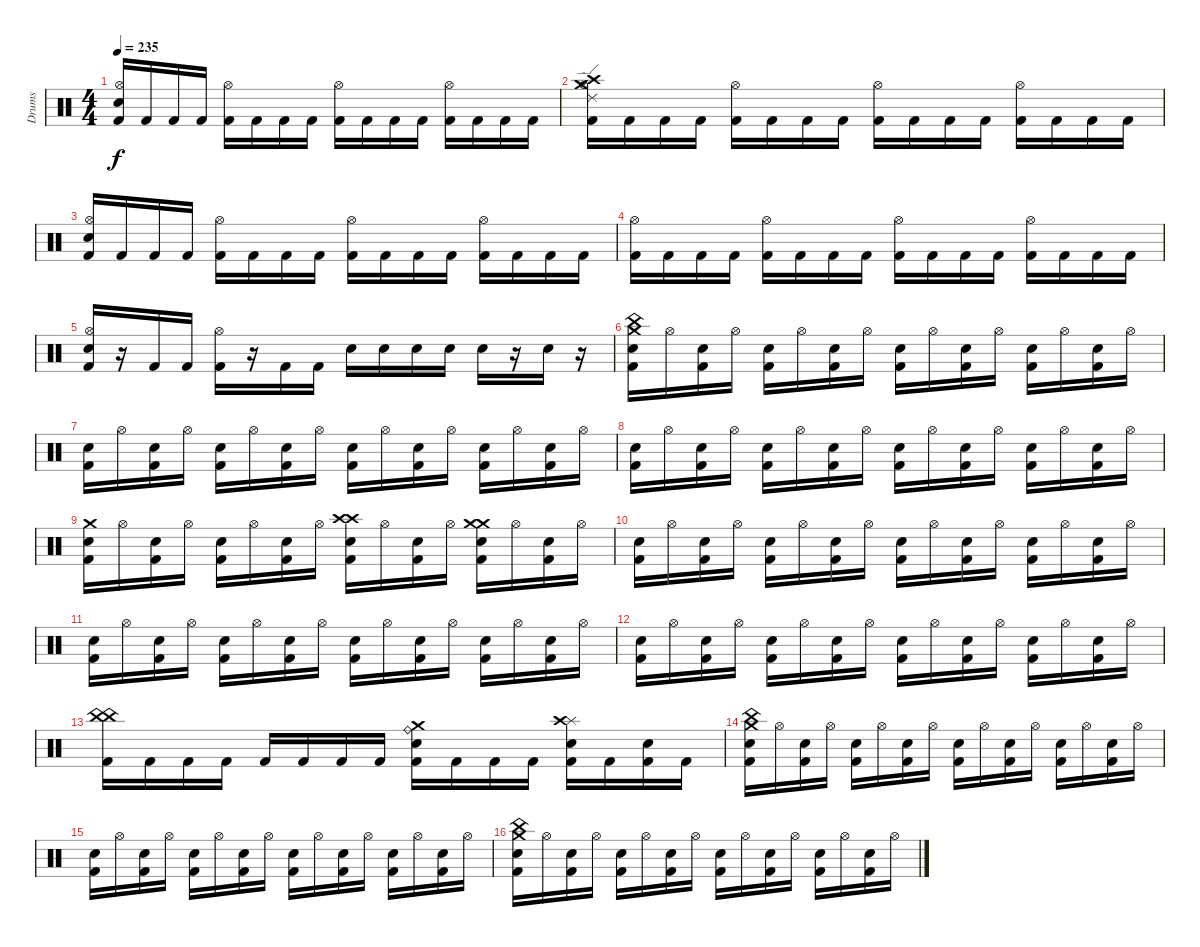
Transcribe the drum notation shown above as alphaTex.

\track ("Drums" "Drums") {instrument percussion}
\staff {score}
\articulation defaults
\ts (4 4)
\tempo 235
\clef neutral
\ks c
("Electric Snare (hit)" "Hi-Hat (open)" "Kick (hit) 2").16{dy f} "Kick (hit) 2".16 "Kick (hit) 2".16 "Kick (hit) 2".16 ("Hi-Hat (open)" "Kick (hit) 2").16 "Kick (hit) 2".16 "Kick (hit) 2".16 "Kick (hit) 2".16 ("Hi-Hat (open)" "Kick (hit) 2").16 "Kick (hit) 2".16 "Kick (hit) 2".16 "Kick (hit) 2".16 ("Hi-Hat (open)" "Kick (hit) 2").16 "Kick (hit) 2".16 "Kick (hit) 2".16 "Kick (hit) 2".16 |
("Crash medium (hit)" "Ride (edge) 2" "Crash high (hit)" "Hi-Hat (open)" "Kick (hit) 2").16 "Kick (hit) 2".16 "Kick (hit) 2".16 "Kick (hit) 2".16 ("Hi-Hat (open)" "Kick (hit) 2").16 "Kick (hit) 2".16 "Kick (hit) 2".16 "Kick (hit) 2".16 ("Hi-Hat (open)" "Kick (hit) 2").16 "Kick (hit) 2".16 "Kick (hit) 2".16 "Kick (hit) 2".16 ("Hi-Hat (open)" "Kick (hit) 2").16 "Kick (hit) 2".16 "Kick (hit) 2".16 "Kick (hit) 2".16 |
("Electric Snare (hit)" "Hi-Hat (open)" "Kick (hit) 2").16 "Kick (hit) 2".16 "Kick (hit) 2".16 "Kick (hit) 2".16 ("Hi-Hat (open)" "Kick (hit) 2").16 "Kick (hit) 2".16 "Kick (hit) 2".16 "Kick (hit) 2".16 ("Hi-Hat (open)" "Kick (hit) 2").16 "Kick (hit) 2".16 "Kick (hit) 2".16 "Kick (hit) 2".16 ("Hi-Hat (open)" "Kick (hit) 2").16 "Kick (hit) 2".16 "Kick (hit) 2".16 "Kick (hit) 2".16 |
("Hi-Hat (open)" "Kick (hit) 2").16 "Kick (hit) 2".16 "Kick (hit) 2".16 "Kick (hit) 2".16 ("Hi-Hat (open)" "Kick (hit) 2").16 "Kick (hit) 2".16 "Kick (hit) 2".16 "Kick (hit) 2".16 ("Hi-Hat (open)" "Kick (hit) 2").16 "Kick (hit) 2".16 "Kick (hit) 2".16 "Kick (hit) 2".16 ("Hi-Hat (open)" "Kick (hit) 2").16 "Kick (hit) 2".16 "Kick (hit) 2".16 "Kick (hit) 2".16 |
("Electric Snare (hit)" "Hi-Hat (open)" "Kick (hit) 2").16 r.16 "Kick (hit) 2".16 "Kick (hit) 2".16 ("Hi-Hat (open)" "Kick (hit) 2").16 r.16 "Kick (hit) 2".16 "Kick (hit) 2".16 "Electric Snare (hit)".16 "Electric Snare (hit)".16 "Electric Snare (hit)".16 "Electric Snare (hit)".16 "Electric Snare (hit)".16 r.16 "Electric Snare (hit)".16 r.16 |
("China (hit)" "Crash medium (hit)" "Electric Snare (hit)" "Kick (hit) 2").16 "Hi-Hat (open)".16 ("Electric Snare (hit)" "Kick (hit) 2").16 "Hi-Hat (open)".16 ("Electric Snare (hit)" "Kick (hit) 2").16 "Hi-Hat (open)".16 ("Electric Snare (hit)" "Kick (hit) 2").16 "Hi-Hat (open)".16 ("Electric Snare (hit)" "Kick (hit) 2").16 "Hi-Hat (open)".16 ("Electric Snare (hit)" "Kick (hit) 2").16 "Hi-Hat (open)".16 ("Electric Snare (hit)" "Kick (hit) 2").16 "Hi-Hat (open)".16 ("Electric Snare (hit)" "Kick (hit) 2").16 "Hi-Hat (open)".16 |
("Electric Snare (hit)" "Kick (hit) 2").16 "Hi-Hat (open)".16 ("Electric Snare (hit)" "Kick (hit) 2").16 "Hi-Hat (open)".16 ("Electric Snare (hit)" "Kick (hit) 2").16 "Hi-Hat (open)".16 ("Electric Snare (hit)" "Kick (hit) 2").16 "Hi-Hat (open)".16 ("Electric Snare (hit)" "Kick (hit) 2").16 "Hi-Hat (open)".16 ("Electric Snare (hit)" "Kick (hit) 2").16 "Hi-Hat (open)".16 ("Electric Snare (hit)" "Kick (hit) 2").16 "Hi-Hat (open)".16 ("Electric Snare (hit)" "Kick (hit) 2").16 "Hi-Hat (open)".16 |
("Electric Snare (hit)" "Kick (hit) 2").16 "Hi-Hat (open)".16 ("Electric Snare (hit)" "Kick (hit) 2").16 "Hi-Hat (open)".16 ("Electric Snare (hit)" "Kick (hit) 2").16 "Hi-Hat (open)".16 ("Electric Snare (hit)" "Kick (hit) 2").16 "Hi-Hat (open)".16 ("Electric Snare (hit)" "Kick (hit) 2").16 "Hi-Hat (open)".16 ("Electric Snare (hit)" "Kick (hit) 2").16 "Hi-Hat (open)".16 ("Electric Snare (hit)" "Kick (hit) 2").16 "Hi-Hat (open)".16 ("Electric Snare (hit)" "Kick (hit) 2").16 "Hi-Hat (open)".16 |
("Crash medium (hit)" "Electric Snare (hit)" "Kick (hit) 2").16 "Hi-Hat (open)".16 ("Electric Snare (hit)" "Kick (hit) 2").16 "Hi-Hat (open)".16 ("Electric Snare (hit)" "Kick (hit) 2").16 "Hi-Hat (open)".16 ("Electric Snare (hit)" "Kick (hit) 2").16 "Hi-Hat (open)".16 ("Crash high (hit)" "Crash high (hit)" "Electric Snare (hit)" "Kick (hit) 2").16 "Hi-Hat (open)".16 ("Electric Snare (hit)" "Kick (hit) 2").16 "Hi-Hat (open)".16 ("Crash medium (hit)" "Crash medium (hit)" "Electric Snare (hit)" "Kick (hit) 2").16 "Hi-Hat (open)".16 ("Electric Snare (hit)" "Kick (hit) 2").16 "Hi-Hat (open)".16 |
("Electric Snare (hit)" "Kick (hit) 2").16 "Hi-Hat (open)".16 ("Electric Snare (hit)" "Kick (hit) 2").16 "Hi-Hat (open)".16 ("Electric Snare (hit)" "Kick (hit) 2").16 "Hi-Hat (open)".16 ("Electric Snare (hit)" "Kick (hit) 2").16 "Hi-Hat (open)".16 ("Electric Snare (hit)" "Kick (hit) 2").16 "Hi-Hat (open)".16 ("Electric Snare (hit)" "Kick (hit) 2").16 "Hi-Hat (open)".16 ("Electric Snare (hit)" "Kick (hit) 2").16 "Hi-Hat (open)".16 ("Electric Snare (hit)" "Kick (hit) 2").16 "Hi-Hat (open)".16 |
("Electric Snare (hit)" "Kick (hit) 2").16 "Hi-Hat (open)".16 ("Electric Snare (hit)" "Kick (hit) 2").16 "Hi-Hat (open)".16 ("Electric Snare (hit)" "Kick (hit) 2").16 "Hi-Hat (open)".16 ("Electric Snare (hit)" "Kick (hit) 2").16 "Hi-Hat (open)".16 ("Electric Snare (hit)" "Kick (hit) 2").16 "Hi-Hat (open)".16 ("Electric Snare (hit)" "Kick (hit) 2").16 "Hi-Hat (open)".16 ("Electric Snare (hit)" "Kick (hit) 2").16 "Hi-Hat (open)".16 ("Electric Snare (hit)" "Kick (hit) 2").16 "Hi-Hat (open)".16 |
("Electric Snare (hit)" "Kick (hit) 2").16 "Hi-Hat (open)".16 ("Electric Snare (hit)" "Kick (hit) 2").16 "Hi-Hat (open)".16 ("Electric Snare (hit)" "Kick (hit) 2").16 "Hi-Hat (open)".16 ("Electric Snare (hit)" "Kick (hit) 2").16 "Hi-Hat (open)".16 ("Electric Snare (hit)" "Kick (hit) 2").16 "Hi-Hat (open)".16 ("Electric Snare (hit)" "Kick (hit) 2").16 "Hi-Hat (open)".16 ("Electric Snare (hit)" "Kick (hit) 2").16 "Hi-Hat (open)".16 ("Electric Snare (hit)" "Kick (hit) 2").16 "Hi-Hat (open)".16 |
("China (hit)" "China (hit)" "Kick (hit) 2").16 "Kick (hit) 2".16 "Kick (hit) 2".16 "Kick (hit) 2".16 "Kick (hit) 2".16 "Kick (hit) 2".16 "Kick (hit) 2".16 "Kick (hit) 2".16 ("Ride (bell)" "Crash medium (hit)" "Electric Snare (hit)" "Kick (hit) 2").16 "Kick (hit) 2".16 "Kick (hit) 2".16 "Kick (hit) 2".16 ("Splash (hit)" "Crash high (hit)" "Electric Snare (hit)" "Kick (hit) 2").16 "Kick (hit) 2".16 ("Electric Snare (hit)" "Kick (hit) 2").16 "Kick (hit) 2".16 |
("China (hit)" "Crash medium (hit)" "Electric Snare (hit)" "Kick (hit) 2").16 "Hi-Hat (open)".16 ("Electric Snare (hit)" "Kick (hit) 2").16 "Hi-Hat (open)".16 ("Electric Snare (hit)" "Kick (hit) 2").16 "Hi-Hat (open)".16 ("Electric Snare (hit)" "Kick (hit) 2").16 "Hi-Hat (open)".16 ("Electric Snare (hit)" "Kick (hit) 2").16 "Hi-Hat (open)".16 ("Electric Snare (hit)" "Kick (hit) 2").16 "Hi-Hat (open)".16 ("Electric Snare (hit)" "Kick (hit) 2").16 "Hi-Hat (open)".16 ("Electric Snare (hit)" "Kick (hit) 2").16 "Hi-Hat (open)".16 |
("Electric Snare (hit)" "Kick (hit) 2").16 "Hi-Hat (open)".16 ("Electric Snare (hit)" "Kick (hit) 2").16 "Hi-Hat (open)".16 ("Electric Snare (hit)" "Kick (hit) 2").16 "Hi-Hat (open)".16 ("Electric Snare (hit)" "Kick (hit) 2").16 "Hi-Hat (open)".16 ("Electric Snare (hit)" "Kick (hit) 2").16 "Hi-Hat (open)".16 ("Electric Snare (hit)" "Kick (hit) 2").16 "Hi-Hat (open)".16 ("Electric Snare (hit)" "Kick (hit) 2").16 "Hi-Hat (open)".16 ("Electric Snare (hit)" "Kick (hit) 2").16 "Hi-Hat (open)".16 |
("China (hit)" "Crash medium (hit)" "Electric Snare (hit)" "Kick (hit) 2").16 "Hi-Hat (open)".16 ("Electric Snare (hit)" "Kick (hit) 2").16 "Hi-Hat (open)".16 ("Electric Snare (hit)" "Kick (hit) 2").16 "Hi-Hat (open)".16 ("Electric Snare (hit)" "Kick (hit) 2").16 "Hi-Hat (open)".16 ("Electric Snare (hit)" "Kick (hit) 2").16 "Hi-Hat (open)".16 ("Electric Snare (hit)" "Kick (hit) 2").16 "Hi-Hat (open)".16 ("Electric Snare (hit)" "Kick (hit) 2").16 "Hi-Hat (open)".16 ("Electric Snare (hit)" "Kick (hit) 2").16 "Hi-Hat (open)".16
